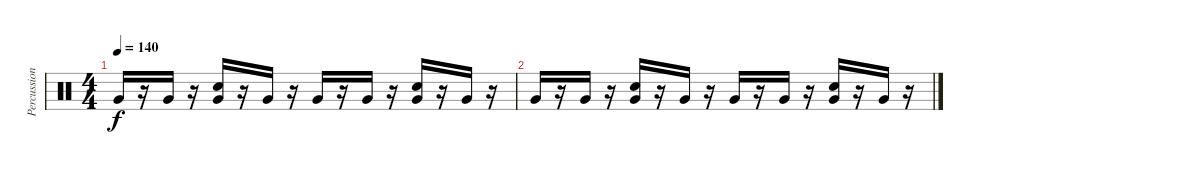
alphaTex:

\track ("Percussions" "Percussion") {instrument percussion}
\staff {score}
\articulation defaults
\ts (4 4)
\tempo 140
\clef neutral
\ks c "Very Low Tom (hit)".16{dy f}
r.16 "Very Low Tom (hit)".16 r.16 ("Very Low Tom (hit)" "Electric Snare (hit)").16 r.16 "Very Low Tom (hit)".16 r.16 "Very Low Tom (hit)".16 r.16 "Very Low Tom (hit)".16 r.16 ("Very Low Tom (hit)" "Electric Snare (hit)").16 r.16 "Very Low Tom (hit)".16 r.16 |
"Very Low Tom (hit)".16 r.16 "Very Low Tom (hit)".16 r.16 ("Very Low Tom (hit)" "Electric Snare (hit)").16 r.16 "Very Low Tom (hit)".16 r.16 "Very Low Tom (hit)".16 r.16 "Very Low Tom (hit)".16 r.16 ("Very Low Tom (hit)" "Electric Snare (hit)").16 r.16 "Very Low Tom (hit)".16 r.16
